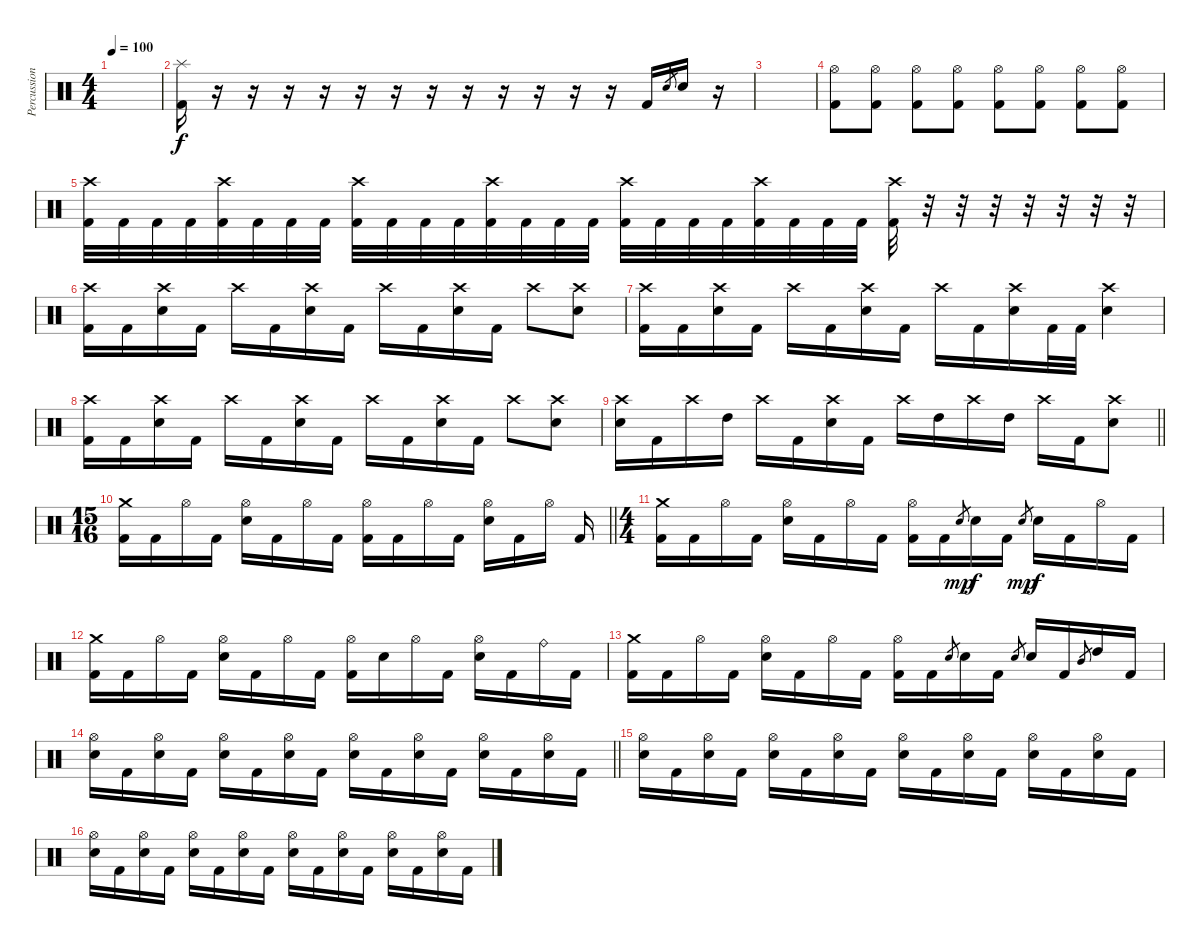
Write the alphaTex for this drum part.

\track ("Percussion (Moose)" "Percussion") {instrument percussion}
\staff {score}
\articulation defaults
\ts (4 4)
\tempo 100
\clef neutral
\ks c
|
("Splash (hit)" "Kick (hit) 2").16 r.16 r.16 r.16 r.16 r.16 r.16 r.16 r.16 r.16 r.16 r.16 r.16 "Kick (hit) 2".16 "Electric Snare (hit)".8{gr} "Electric Snare (hit)".16 r.16 |
|
("Hi-Hat (open)" "Kick (hit) 2").8 ("Hi-Hat (open)" "Kick (hit) 2").8 ("Hi-Hat (open)" "Kick (hit) 2").8 ("Hi-Hat (open)" "Kick (hit) 2").8 ("Hi-Hat (open)" "Kick (hit) 2").8 ("Hi-Hat (open)" "Kick (hit) 2").8 ("Hi-Hat (open)" "Kick (hit) 2").8 ("Hi-Hat (open)" "Kick (hit) 2").8 |
("Crash high (hit)" "Kick (hit) 2").32 "Kick (hit) 2".32 "Kick (hit) 2".32 "Kick (hit) 2".32 ("Crash high (hit)" "Kick (hit) 2").32 "Kick (hit) 2".32 "Kick (hit) 2".32 "Kick (hit) 2".32 ("Crash high (hit)" "Kick (hit) 2").32 "Kick (hit) 2".32 "Kick (hit) 2".32 "Kick (hit) 2".32 ("Crash high (hit)" "Kick (hit) 2").32 "Kick (hit) 2".32 "Kick (hit) 2".32 "Kick (hit) 2".32 ("Crash high (hit)" "Kick (hit) 2").32 "Kick (hit) 2".32 "Kick (hit) 2".32 "Kick (hit) 2".32 ("Crash high (hit)" "Kick (hit) 2").32 "Kick (hit) 2".32 "Kick (hit) 2".32 "Kick (hit) 2".32 ("Crash high (hit)" "Kick (hit) 2").32 r.32 r.32 r.32 r.32 r.32 r.32 r.32 |
("Crash high (hit)" "Kick (hit) 2").16 "Kick (hit) 2".16 ("Crash high (hit)" "Electric Snare (hit)").16 "Kick (hit) 2".16 "Crash high (hit)".16 "Kick (hit) 2".16 ("Crash high (hit)" "Electric Snare (hit)").16 "Kick (hit) 2".16 "Crash high (hit)".16 "Kick (hit) 2".16 ("Crash high (hit)" "Electric Snare (hit)").16 "Kick (hit) 2".16 "Crash high (hit)".8 ("Crash high (hit)" "Electric Snare (hit)").8 |
("Crash high (hit)" "Kick (hit) 2").16 "Kick (hit) 2".16 ("Crash high (hit)" "Electric Snare (hit)").16 "Kick (hit) 2".16 "Crash high (hit)".16 "Kick (hit) 2".16 ("Crash high (hit)" "Electric Snare (hit)").16 "Kick (hit) 2".16 "Crash high (hit)".16 "Kick (hit) 2".16 ("Crash high (hit)" "Electric Snare (hit)").16 "Kick (hit) 2".32 "Kick (hit) 2".32 ("Crash high (hit)" "Electric Snare (hit)").4 |
("Crash high (hit)" "Kick (hit) 2").16 "Kick (hit) 2".16 ("Crash high (hit)" "Electric Snare (hit)").16 "Kick (hit) 2".16 "Crash high (hit)".16 "Kick (hit) 2".16 ("Crash high (hit)" "Electric Snare (hit)").16 "Kick (hit) 2".16 "Crash high (hit)".16 "Kick (hit) 2".16 ("Crash high (hit)" "Electric Snare (hit)").16 "Kick (hit) 2".16 "Crash high (hit)".8 ("Crash high (hit)" "Electric Snare (hit)").8 |
\barLineRight lightlight
("Crash high (hit)" "Electric Snare (hit)").16 "Kick (hit) 2".16 "Crash high (hit)".16 "High Tom (hit)".16 "Crash high (hit)".16 "Kick (hit) 2".16 ("Crash high (hit)" "Electric Snare (hit)").16 "Kick (hit) 2".16 "Crash high (hit)".16 "High Tom (hit)".16 "Crash high (hit)".16 "High Tom (hit)".16 "Crash high (hit)".16 "Kick (hit) 2".16 ("Crash high (hit)" "Electric Snare (hit)").8 |
\ts (15 16)
\barLineRight lightlight
("Crash medium (hit)" "Kick (hit) 2").16 "Kick (hit) 2".16 "Hi-Hat (open)".16 "Kick (hit) 2".16 ("Hi-Hat (open)" "Electric Snare (hit)").16 "Kick (hit) 2".16 "Hi-Hat (open)".16 "Kick (hit) 2".16 ("Hi-Hat (open)" "Kick (hit) 2").16 "Kick (hit) 2".16 "Hi-Hat (open)".16 "Kick (hit) 2".16 ("Hi-Hat (open)" "Electric Snare (hit)").16 "Kick (hit) 2".16 "Hi-Hat (open)".16 "Kick (hit) 2".16 |
\ts (4 4)
("Crash medium (hit)" "Kick (hit) 2").16 "Kick (hit) 2".16 "Hi-Hat (open)".16 "Kick (hit) 2".16 ("Hi-Hat (open)" "Electric Snare (hit)").16 "Kick (hit) 2".16 "Hi-Hat (open)".16 "Kick (hit) 2".16 ("Hi-Hat (open)" "Kick (hit) 2").16 "Kick (hit) 2".16 "Electric Snare (hit)".8{gr dy mp} "Electric Snare (hit)".16{dy f} "Kick (hit) 2".16 "Electric Snare (hit)".8{gr dy mp} "Electric Snare (hit)".16{dy f} "Kick (hit) 2".16 "Hi-Hat (open)".16 "Kick (hit) 2".16 |
("Crash medium (hit)" "Kick (hit) 2").16 "Kick (hit) 2".16 "Hi-Hat (open)".16 "Kick (hit) 2".16 ("Hi-Hat (open)" "Electric Snare (hit)").16 "Kick (hit) 2".16 "Hi-Hat (open)".16 "Kick (hit) 2".16 ("Hi-Hat (open)" "Kick (hit) 2").16 "Electric Snare (hit)".16 "Hi-Hat (open)".16 "Kick (hit) 2".16 ("Hi-Hat (open)" "Electric Snare (hit)").16 "Kick (hit) 2".16 "Ride (bell)".16 "Kick (hit) 2".16 |
("Crash medium (hit)" "Kick (hit) 2").16 "Kick (hit) 2".16 "Hi-Hat (open)".16 "Kick (hit) 2".16 ("Hi-Hat (open)" "Electric Snare (hit)").16 "Kick (hit) 2".16 "Hi-Hat (open)".16 "Kick (hit) 2".16 ("Hi-Hat (open)" "Kick (hit) 2").16 "Kick (hit) 2".16 "Electric Snare (hit)".8{gr} "Electric Snare (hit)".16 "Kick (hit) 2".16 "Electric Snare (hit)".8{gr} "Electric Snare (hit)".16 "Kick (hit) 2".16 "Mid Tom (hit)".8{gr} "High Tom (hit)".16 "Kick (hit) 2".16 |
\barLineRight lightlight
("Hi-Hat (open)" "Electric Snare (hit)").16{volume 6} "Kick (hit) 2".16 ("Hi-Hat (open)" "Electric Snare (hit)").16 "Kick (hit) 2".16 ("Hi-Hat (open)" "Electric Snare (hit)").16 "Kick (hit) 2".16 ("Hi-Hat (open)" "Electric Snare (hit)").16 "Kick (hit) 2".16 ("Hi-Hat (open)" "Electric Snare (hit)").16 "Kick (hit) 2".16 ("Hi-Hat (open)" "Electric Snare (hit)").16 "Kick (hit) 2".16 ("Hi-Hat (open)" "Electric Snare (hit)").16 "Kick (hit) 2".16 ("Hi-Hat (open)" "Electric Snare (hit)").16 "Kick (hit) 2".16 |
("Hi-Hat (open)" "Electric Snare (hit)").16 "Kick (hit) 2".16 ("Hi-Hat (open)" "Electric Snare (hit)").16 "Kick (hit) 2".16 ("Hi-Hat (open)" "Electric Snare (hit)").16 "Kick (hit) 2".16 ("Hi-Hat (open)" "Electric Snare (hit)").16 "Kick (hit) 2".16 ("Hi-Hat (open)" "Electric Snare (hit)").16 "Kick (hit) 2".16 ("Hi-Hat (open)" "Electric Snare (hit)").16 "Kick (hit) 2".16 ("Hi-Hat (open)" "Electric Snare (hit)").16 "Kick (hit) 2".16 ("Hi-Hat (open)" "Electric Snare (hit)").16 "Kick (hit) 2".16 |
("Hi-Hat (open)" "Electric Snare (hit)").16 "Kick (hit) 2".16 ("Hi-Hat (open)" "Electric Snare (hit)").16 "Kick (hit) 2".16 ("Hi-Hat (open)" "Electric Snare (hit)").16 "Kick (hit) 2".16 ("Hi-Hat (open)" "Electric Snare (hit)").16 "Kick (hit) 2".16 ("Hi-Hat (open)" "Electric Snare (hit)").16 "Kick (hit) 2".16 ("Hi-Hat (open)" "Electric Snare (hit)").16 "Kick (hit) 2".16 ("Hi-Hat (open)" "Electric Snare (hit)").16 "Kick (hit) 2".16 ("Hi-Hat (open)" "Electric Snare (hit)").16 "Kick (hit) 2".16
